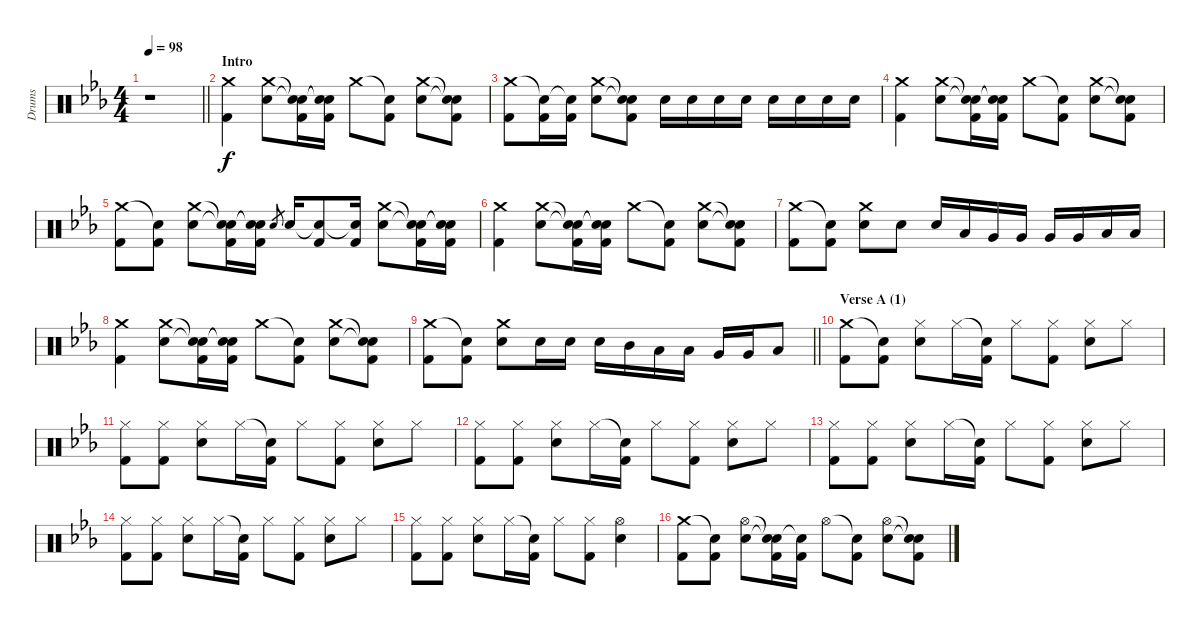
\track ("Drums" "Drums") {instrument percussion}
\staff {score}
\articulation defaults
\ts (4 4)
\tempo 98
\clef neutral
\barLineRight lightlight
\ks cminor
r.1{dy f} |
\section ("" "Intro")
("Crash medium (hit)" "Kick (hit) 2").4 ("Crash medium (hit)" "Electric Snare (hit)").8 ("Snare (hit)"{t} "Snare (hit)"{t} "Kick (hit) 2").16 ("Snare (hit)"{t} "Snare (hit)"{t} "Kick (hit) 2").16 "Crash medium (hit)".8 ("Snare (hit)"{t} "Kick (hit) 2").8 ("Crash medium (hit)" "Electric Snare (hit)").8 ("Snare (hit)"{t} "Snare (hit)"{t} "Kick (hit) 2").8 |
("Crash medium (hit)" "Kick (hit) 2").8 ("Snare (hit)"{t} "Kick (hit) 2").16 ("Snare (hit)"{t} "Kick (hit) 2").16 ("Crash medium (hit)" "Electric Snare (hit)").8 ("Snare (hit)"{t} "Snare (hit)"{t} "Kick (hit) 2").8 "Electric Snare (hit)".16 "Electric Snare (hit)".16 "Electric Snare (hit)".16 "Electric Snare (hit)".16 "Electric Snare (hit)".16 "Electric Snare (hit)".16 "Electric Snare (hit)".16 "Electric Snare (hit)".16 |
("Crash medium (hit)" "Kick (hit) 2").4 ("Crash medium (hit)" "Electric Snare (hit)").8 ("Snare (hit)"{t} "Snare (hit)"{t} "Kick (hit) 2").16 ("Snare (hit)"{t} "Snare (hit)"{t} "Kick (hit) 2").16 "Crash medium (hit)".8 ("Snare (hit)"{t} "Kick (hit) 2").8 ("Crash medium (hit)" "Electric Snare (hit)").8 ("Snare (hit)"{t} "Snare (hit)"{t} "Kick (hit) 2").8 |
("Crash medium (hit)" "Kick (hit) 2").8 ("Snare (hit)"{t} "Kick (hit) 2").8 ("Crash medium (hit)" "Electric Snare (hit)").8 ("Snare (hit)"{t} "Snare (hit)"{t} "Kick (hit) 2").16 ("Snare (hit)"{t} "Snare (hit)"{t} "Kick (hit) 2").16 "Electric Snare (hit)".8{gr} "Electric Snare (hit)".16 ("Snare (hit)"{t} "Kick (hit) 2").8 ("Snare (hit)"{t} "Kick (hit) 2").16 ("Crash medium (hit)" "Electric Snare (hit)").8 ("Snare (hit)"{t} "Snare (hit)"{t} "Kick (hit) 2").16 ("Snare (hit)"{t} "Snare (hit)"{t} "Kick (hit) 2").16 |
("Crash medium (hit)" "Kick (hit) 2").4 ("Crash medium (hit)" "Electric Snare (hit)").8 ("Snare (hit)"{t} "Snare (hit)"{t} "Kick (hit) 2").16 ("Snare (hit)"{t} "Snare (hit)"{t} "Kick (hit) 2").16 "Crash medium (hit)".8 ("Snare (hit)"{t} "Kick (hit) 2").8 ("Crash medium (hit)" "Electric Snare (hit)").8 ("Snare (hit)"{t} "Snare (hit)"{t} "Kick (hit) 2").8 |
("Crash medium (hit)" "Kick (hit) 2").8 ("Snare (hit)"{t} "Kick (hit) 2").8 ("Crash medium (hit)" "Electric Snare (hit)").8 "Electric Snare (hit)".8 "Electric Snare (hit)".16 "Low Tom (hit)".16 "Very Low Tom (hit)".16 "Very Low Tom (hit)".16 "Very Low Tom (hit)".16 "Very Low Tom (hit)".16 "Low Floor Tom (hit)".16 "Low Floor Tom (hit)".16 |
("Crash medium (hit)" "Kick (hit) 2").4 ("Crash medium (hit)" "Electric Snare (hit)").8 ("Snare (hit)"{t} "Snare (hit)"{t} "Kick (hit) 2").16 ("Snare (hit)"{t} "Snare (hit)"{t} "Kick (hit) 2").16 "Crash medium (hit)".8 ("Snare (hit)"{t} "Kick (hit) 2").8 ("Crash medium (hit)" "Electric Snare (hit)").8 ("Snare (hit)"{t} "Snare (hit)"{t} "Kick (hit) 2").8 |
\barLineRight lightlight
("Crash medium (hit)" "Kick (hit) 2").8 ("Snare (hit)"{t} "Kick (hit) 2").8 ("Crash medium (hit)" "Electric Snare (hit)").8 "Electric Snare (hit)".16 "Electric Snare (hit)".16 "Electric Snare (hit)".16 "Mid Tom (hit)".16 "Low Tom (hit)".16 "Low Tom (hit)".16 "Very Low Tom (hit)".16 "Very Low Tom (hit)".16 "Low Floor Tom (hit)".8 |
\section ("" "Verse A (1)")
("Crash medium (hit)" "Kick (hit) 2").8 ("Snare (hit)"{t} "Kick (hit) 2").8 ("Hi-Hat (closed)" "Electric Snare (hit)").8 "Hi-Hat (closed)".16 ("Snare (hit)"{t} "Kick (hit) 2").16 "Hi-Hat (closed)".8 ("Hi-Hat (closed)" "Kick (hit) 2").8 ("Hi-Hat (closed)" "Electric Snare (hit)").8 "Hi-Hat (closed)".8 |
("Hi-Hat (closed)" "Kick (hit) 2").8 ("Hi-Hat (closed)" "Kick (hit) 2").8 ("Hi-Hat (closed)" "Electric Snare (hit)").8 "Hi-Hat (closed)".16 ("Snare (hit)"{t} "Kick (hit) 2").16 "Hi-Hat (closed)".8 ("Hi-Hat (closed)" "Kick (hit) 2").8 ("Hi-Hat (closed)" "Electric Snare (hit)").8 "Hi-Hat (closed)".8 |
("Hi-Hat (closed)" "Kick (hit) 2").8 ("Hi-Hat (closed)" "Kick (hit) 2").8 ("Hi-Hat (closed)" "Electric Snare (hit)").8 "Hi-Hat (closed)".16 ("Snare (hit)"{t} "Kick (hit) 2").16 "Hi-Hat (closed)".8 ("Hi-Hat (closed)" "Kick (hit) 2").8 ("Hi-Hat (closed)" "Electric Snare (hit)").8 "Hi-Hat (closed)".8 |
("Hi-Hat (closed)" "Kick (hit) 2").8 ("Hi-Hat (closed)" "Kick (hit) 2").8 ("Hi-Hat (closed)" "Electric Snare (hit)").8 "Hi-Hat (closed)".16 ("Snare (hit)"{t} "Kick (hit) 2").16 "Hi-Hat (closed)".8 ("Hi-Hat (closed)" "Kick (hit) 2").8 ("Hi-Hat (closed)" "Electric Snare (hit)").8 "Hi-Hat (closed)".8 |
("Hi-Hat (closed)" "Kick (hit) 2").8 ("Hi-Hat (closed)" "Kick (hit) 2").8 ("Hi-Hat (closed)" "Electric Snare (hit)").8 "Hi-Hat (closed)".16 ("Snare (hit)"{t} "Kick (hit) 2").16 "Hi-Hat (closed)".8 ("Hi-Hat (closed)" "Kick (hit) 2").8 ("Hi-Hat (closed)" "Electric Snare (hit)").8 "Hi-Hat (closed)".8 |
("Hi-Hat (closed)" "Kick (hit) 2").8 ("Hi-Hat (closed)" "Kick (hit) 2").8 ("Hi-Hat (closed)" "Electric Snare (hit)").8 "Hi-Hat (closed)".16 ("Snare (hit)"{t} "Kick (hit) 2").16 "Hi-Hat (closed)".8 ("Hi-Hat (closed)" "Kick (hit) 2").8 ("Hi-Hat (open)" "Electric Snare (hit)").4 |
("Crash medium (hit)" "Kick (hit) 2").8 ("Snare (hit)"{t} "Kick (hit) 2").8 ("Hi-Hat (open)" "Electric Snare (hit)").8 ("Snare (hit)"{t} "Snare (hit)"{t} "Kick (hit) 2").16 ("Snare (hit)"{t} "Kick (hit) 2").16 "Hi-Hat (open)".8 ("Snare (hit)"{t} "Kick (hit) 2").8 ("Hi-Hat (open)" "Electric Snare (hit)").8 ("Snare (hit)"{t} "Snare (hit)"{t} "Kick (hit) 2").8
